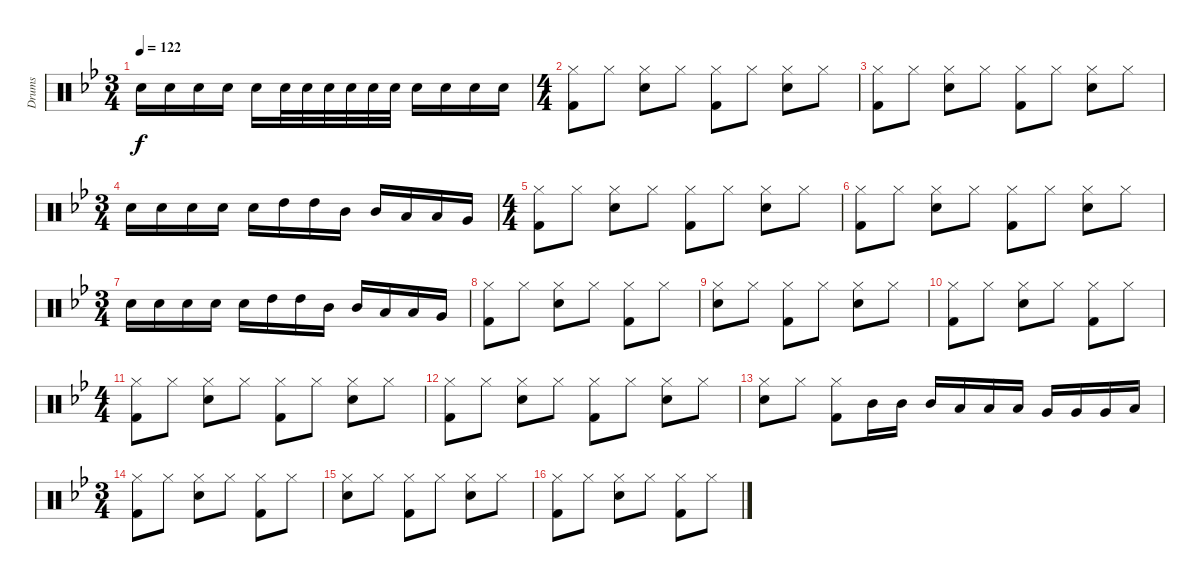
\track ("Drums" "Drums") {instrument percussion}
\staff {score}
\articulation defaults
\ts (3 4)
\tempo 122
\clef neutral
\ks bb "Electric Snare (hit)".16{dy f} "Electric Snare (hit)".16 "Electric Snare (hit)".16 "Electric Snare (hit)".16 "Electric Snare (hit)".16 "Electric Snare (hit)".32 "Electric Snare (hit)".32 "Electric Snare (hit)".32 "Electric Snare (hit)".32 "Electric Snare (hit)".32 "Electric Snare (hit)".32 "Electric Snare (hit)".16 "Electric Snare (hit)".16 "Electric Snare (hit)".16 "Electric Snare (hit)".16
|
\ts (4 4)
("Hi-Hat (closed)" "Kick (hit) 2").8 "Hi-Hat (closed)".8 ("Hi-Hat (closed)" "Electric Snare (hit)").8 "Hi-Hat (closed)".8 ("Hi-Hat (closed)" "Kick (hit) 2").8 "Hi-Hat (closed)".8 ("Hi-Hat (closed)" "Electric Snare (hit)").8 "Hi-Hat (closed)".8 |
("Hi-Hat (closed)" "Kick (hit) 2").8 "Hi-Hat (closed)".8 ("Hi-Hat (closed)" "Electric Snare (hit)").8 "Hi-Hat (closed)".8 ("Hi-Hat (closed)" "Kick (hit) 2").8 "Hi-Hat (closed)".8 ("Hi-Hat (closed)" "Electric Snare (hit)").8 "Hi-Hat (closed)".8 |
\ts (3 4)
"Electric Snare (hit)".16 "Electric Snare (hit)".16 "Electric Snare (hit)".16 "Electric Snare (hit)".16 "Electric Snare (hit)".16 "High Tom (hit)".16 "High Tom (hit)".16 "Mid Tom (hit)".16 "Mid Tom (hit)".16 "Low Tom (hit)".16 "Low Tom (hit)".16 "Very Low Tom (hit)".16 |
\ts (4 4)
("Hi-Hat (closed)" "Kick (hit) 2").8 "Hi-Hat (closed)".8 ("Hi-Hat (closed)" "Electric Snare (hit)").8 "Hi-Hat (closed)".8 ("Hi-Hat (closed)" "Kick (hit) 2").8 "Hi-Hat (closed)".8 ("Hi-Hat (closed)" "Electric Snare (hit)").8 "Hi-Hat (closed)".8 |
("Hi-Hat (closed)" "Kick (hit) 2").8 "Hi-Hat (closed)".8 ("Hi-Hat (closed)" "Electric Snare (hit)").8 "Hi-Hat (closed)".8 ("Hi-Hat (closed)" "Kick (hit) 2").8 "Hi-Hat (closed)".8 ("Hi-Hat (closed)" "Electric Snare (hit)").8 "Hi-Hat (closed)".8 |
\ts (3 4)
"Electric Snare (hit)".16 "Electric Snare (hit)".16 "Electric Snare (hit)".16 "Electric Snare (hit)".16 "Electric Snare (hit)".16 "High Tom (hit)".16 "High Tom (hit)".16 "Mid Tom (hit)".16 "Mid Tom (hit)".16 "Low Tom (hit)".16 "Low Tom (hit)".16 "Very Low Tom (hit)".16 |
("Hi-Hat (closed)" "Kick (hit) 2").8 "Hi-Hat (closed)".8 ("Hi-Hat (closed)" "Electric Snare (hit)").8 "Hi-Hat (closed)".8 ("Hi-Hat (closed)" "Kick (hit) 2").8 "Hi-Hat (closed)".8 |
("Hi-Hat (closed)" "Electric Snare (hit)").8 "Hi-Hat (closed)".8 ("Hi-Hat (closed)" "Kick (hit) 2").8 "Hi-Hat (closed)".8 ("Hi-Hat (closed)" "Electric Snare (hit)").8 "Hi-Hat (closed)".8 |
("Hi-Hat (closed)" "Kick (hit) 2").8 "Hi-Hat (closed)".8 ("Hi-Hat (closed)" "Electric Snare (hit)").8 "Hi-Hat (closed)".8 ("Hi-Hat (closed)" "Kick (hit) 2").8 "Hi-Hat (closed)".8 |
\ts (4 4)
("Hi-Hat (closed)" "Kick (hit) 2").8 "Hi-Hat (closed)".8 ("Hi-Hat (closed)" "Electric Snare (hit)").8 "Hi-Hat (closed)".8 ("Hi-Hat (closed)" "Kick (hit) 2").8 "Hi-Hat (closed)".8 ("Hi-Hat (closed)" "Electric Snare (hit)").8 "Hi-Hat (closed)".8 |
("Hi-Hat (closed)" "Kick (hit) 2").8 "Hi-Hat (closed)".8 ("Hi-Hat (closed)" "Electric Snare (hit)").8 "Hi-Hat (closed)".8 ("Hi-Hat (closed)" "Kick (hit) 2").8 "Hi-Hat (closed)".8 ("Hi-Hat (closed)" "Electric Snare (hit)").8 "Hi-Hat (closed)".8 |
("Hi-Hat (closed)" "Electric Snare (hit)").8 "Hi-Hat (closed)".8 ("Hi-Hat (closed)" "Kick (hit) 2").8 "Mid Tom (hit)".16 "Mid Tom (hit)".16 "Mid Tom (hit)".16 "Low Tom (hit)".16 "Low Tom (hit)".16 "Low Tom (hit)".16 "Very Low Tom (hit)".16 "Very Low Tom (hit)".16 "Very Low Tom (hit)".16 "Low Floor Tom (hit)".16 |
\ts (3 4)
("Hi-Hat (closed)" "Kick (hit) 2").8 "Hi-Hat (closed)".8 ("Hi-Hat (closed)" "Electric Snare (hit)").8 "Hi-Hat (closed)".8 ("Hi-Hat (closed)" "Kick (hit) 2").8 "Hi-Hat (closed)".8 |
("Hi-Hat (closed)" "Electric Snare (hit)").8 "Hi-Hat (closed)".8 ("Hi-Hat (closed)" "Kick (hit) 2").8 "Hi-Hat (closed)".8 ("Hi-Hat (closed)" "Electric Snare (hit)").8 "Hi-Hat (closed)".8 |
("Hi-Hat (closed)" "Kick (hit) 2").8 "Hi-Hat (closed)".8 ("Hi-Hat (closed)" "Electric Snare (hit)").8 "Hi-Hat (closed)".8 ("Hi-Hat (closed)" "Kick (hit) 2").8 "Hi-Hat (closed)".8
